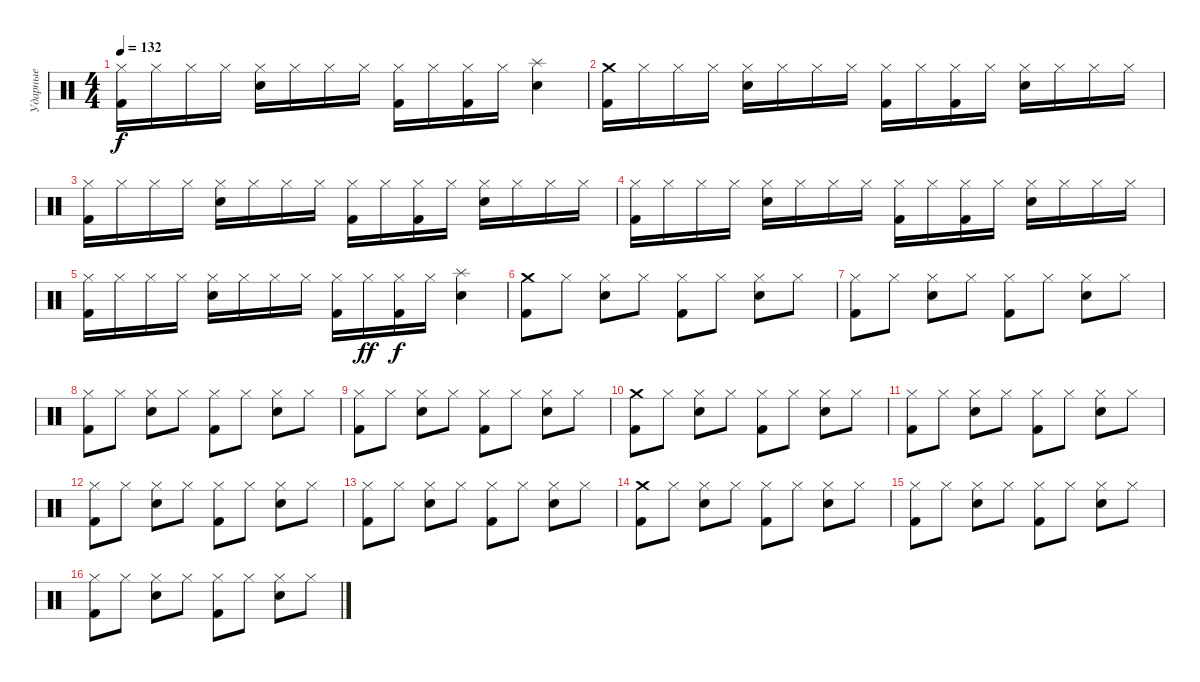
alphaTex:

\track ("Ударные" "Ударные") {instrument percussion}
\staff {score}
\articulation defaults
\ts (4 4)
\tempo 132
\clef neutral
\ks c
("Hi-Hat (closed)" "Kick (hit) 2").16{dy f} "Hi-Hat (closed)".16 "Hi-Hat (closed)".16 "Hi-Hat (closed)".16 ("Hi-Hat (closed)" "Electric Snare (hit)").16 "Hi-Hat (closed)".16 "Hi-Hat (closed)".16 "Hi-Hat (closed)".16 ("Hi-Hat (closed)" "Kick (hit) 2").16 "Hi-Hat (closed)".16 ("Hi-Hat (closed)" "Kick (hit) 2").16 "Hi-Hat (closed)".16 ("Splash (hit)" "Electric Snare (hit)").4 |
("Crash medium (hit)" "Kick (hit) 2").16 "Hi-Hat (closed)".16 "Hi-Hat (closed)".16 "Hi-Hat (closed)".16 ("Hi-Hat (closed)" "Electric Snare (hit)").16 "Hi-Hat (closed)".16 "Hi-Hat (closed)".16 "Hi-Hat (closed)".16 ("Hi-Hat (closed)" "Kick (hit) 2").16 "Hi-Hat (closed)".16 ("Hi-Hat (closed)" "Kick (hit) 2").16 "Hi-Hat (closed)".16 ("Hi-Hat (closed)" "Electric Snare (hit)").16 "Hi-Hat (closed)".16 "Hi-Hat (closed)".16 "Hi-Hat (closed)".16 |
("Hi-Hat (closed)" "Kick (hit) 2").16 "Hi-Hat (closed)".16 "Hi-Hat (closed)".16 "Hi-Hat (closed)".16 ("Hi-Hat (closed)" "Electric Snare (hit)").16 "Hi-Hat (closed)".16 "Hi-Hat (closed)".16 "Hi-Hat (closed)".16 ("Hi-Hat (closed)" "Kick (hit) 2").16 "Hi-Hat (closed)".16 ("Hi-Hat (closed)" "Kick (hit) 2").16 "Hi-Hat (closed)".16 ("Hi-Hat (closed)" "Electric Snare (hit)").16 "Hi-Hat (closed)".16 "Hi-Hat (closed)".16 "Hi-Hat (closed)".16 |
("Hi-Hat (closed)" "Kick (hit) 2").16 "Hi-Hat (closed)".16 "Hi-Hat (closed)".16 "Hi-Hat (closed)".16 ("Hi-Hat (closed)" "Electric Snare (hit)").16 "Hi-Hat (closed)".16 "Hi-Hat (closed)".16 "Hi-Hat (closed)".16 ("Hi-Hat (closed)" "Kick (hit) 2").16 "Hi-Hat (closed)".16 ("Hi-Hat (closed)" "Kick (hit) 2").16 "Hi-Hat (closed)".16 ("Hi-Hat (closed)" "Electric Snare (hit)").16 "Hi-Hat (closed)".16 "Hi-Hat (closed)".16 "Hi-Hat (closed)".16 |
("Hi-Hat (closed)" "Kick (hit) 2").16 "Hi-Hat (closed)".16 "Hi-Hat (closed)".16 "Hi-Hat (closed)".16 ("Hi-Hat (closed)" "Electric Snare (hit)").16 "Hi-Hat (closed)".16 "Hi-Hat (closed)".16 "Hi-Hat (closed)".16 ("Hi-Hat (closed)" "Kick (hit) 2").16 "Hi-Hat (closed)".16{dy ff} ("Hi-Hat (closed)" "Kick (hit) 2").16{dy f} "Hi-Hat (closed)".16 ("Splash (hit)" "Electric Snare (hit)").4 |
("Crash medium (hit)" "Kick (hit) 2").8 "Hi-Hat (closed)".8 ("Hi-Hat (closed)" "Electric Snare (hit)").8 "Hi-Hat (closed)".8 ("Hi-Hat (closed)" "Kick (hit) 2").8 "Hi-Hat (closed)".8 ("Hi-Hat (closed)" "Electric Snare (hit)").8 "Hi-Hat (closed)".8 |
("Hi-Hat (closed)" "Kick (hit) 2").8 "Hi-Hat (closed)".8 ("Hi-Hat (closed)" "Electric Snare (hit)").8 "Hi-Hat (closed)".8 ("Hi-Hat (closed)" "Kick (hit) 2").8 "Hi-Hat (closed)".8 ("Hi-Hat (closed)" "Electric Snare (hit)").8 "Hi-Hat (closed)".8 |
("Hi-Hat (closed)" "Kick (hit) 2").8 "Hi-Hat (closed)".8 ("Hi-Hat (closed)" "Electric Snare (hit)").8 "Hi-Hat (closed)".8 ("Hi-Hat (closed)" "Kick (hit) 2").8 "Hi-Hat (closed)".8 ("Hi-Hat (closed)" "Electric Snare (hit)").8 "Hi-Hat (closed)".8 |
("Hi-Hat (closed)" "Kick (hit) 2").8 "Hi-Hat (closed)".8 ("Hi-Hat (closed)" "Electric Snare (hit)").8 "Hi-Hat (closed)".8 ("Hi-Hat (closed)" "Kick (hit) 2").8 "Hi-Hat (closed)".8 ("Hi-Hat (closed)" "Electric Snare (hit)").8 "Hi-Hat (closed)".8 |
("Crash medium (hit)" "Kick (hit) 2").8 "Hi-Hat (closed)".8 ("Hi-Hat (closed)" "Electric Snare (hit)").8 "Hi-Hat (closed)".8 ("Hi-Hat (closed)" "Kick (hit) 2").8 "Hi-Hat (closed)".8 ("Hi-Hat (closed)" "Electric Snare (hit)").8 "Hi-Hat (closed)".8 |
("Hi-Hat (closed)" "Kick (hit) 2").8 "Hi-Hat (closed)".8 ("Hi-Hat (closed)" "Electric Snare (hit)").8 "Hi-Hat (closed)".8 ("Hi-Hat (closed)" "Kick (hit) 2").8 "Hi-Hat (closed)".8 ("Hi-Hat (closed)" "Electric Snare (hit)").8 "Hi-Hat (closed)".8 |
("Hi-Hat (closed)" "Kick (hit) 2").8 "Hi-Hat (closed)".8 ("Hi-Hat (closed)" "Electric Snare (hit)").8 "Hi-Hat (closed)".8 ("Hi-Hat (closed)" "Kick (hit) 2").8 "Hi-Hat (closed)".8 ("Hi-Hat (closed)" "Electric Snare (hit)").8 "Hi-Hat (closed)".8 |
("Hi-Hat (closed)" "Kick (hit) 2").8 "Hi-Hat (closed)".8 ("Hi-Hat (closed)" "Electric Snare (hit)").8 "Hi-Hat (closed)".8 ("Hi-Hat (closed)" "Kick (hit) 2").8 "Hi-Hat (closed)".8 ("Hi-Hat (closed)" "Electric Snare (hit)").8 "Hi-Hat (closed)".8 |
("Crash medium (hit)" "Kick (hit) 2").8 "Hi-Hat (closed)".8 ("Hi-Hat (closed)" "Electric Snare (hit)").8 "Hi-Hat (closed)".8 ("Hi-Hat (closed)" "Kick (hit) 2").8 "Hi-Hat (closed)".8 ("Hi-Hat (closed)" "Electric Snare (hit)").8 "Hi-Hat (closed)".8 |
("Hi-Hat (closed)" "Kick (hit) 2").8 "Hi-Hat (closed)".8 ("Hi-Hat (closed)" "Electric Snare (hit)").8 "Hi-Hat (closed)".8 ("Hi-Hat (closed)" "Kick (hit) 2").8 "Hi-Hat (closed)".8 ("Hi-Hat (closed)" "Electric Snare (hit)").8 "Hi-Hat (closed)".8 |
("Hi-Hat (closed)" "Kick (hit) 2").8 "Hi-Hat (closed)".8 ("Hi-Hat (closed)" "Electric Snare (hit)").8 "Hi-Hat (closed)".8 ("Hi-Hat (closed)" "Kick (hit) 2").8 "Hi-Hat (closed)".8 ("Hi-Hat (closed)" "Electric Snare (hit)").8 "Hi-Hat (closed)".8
